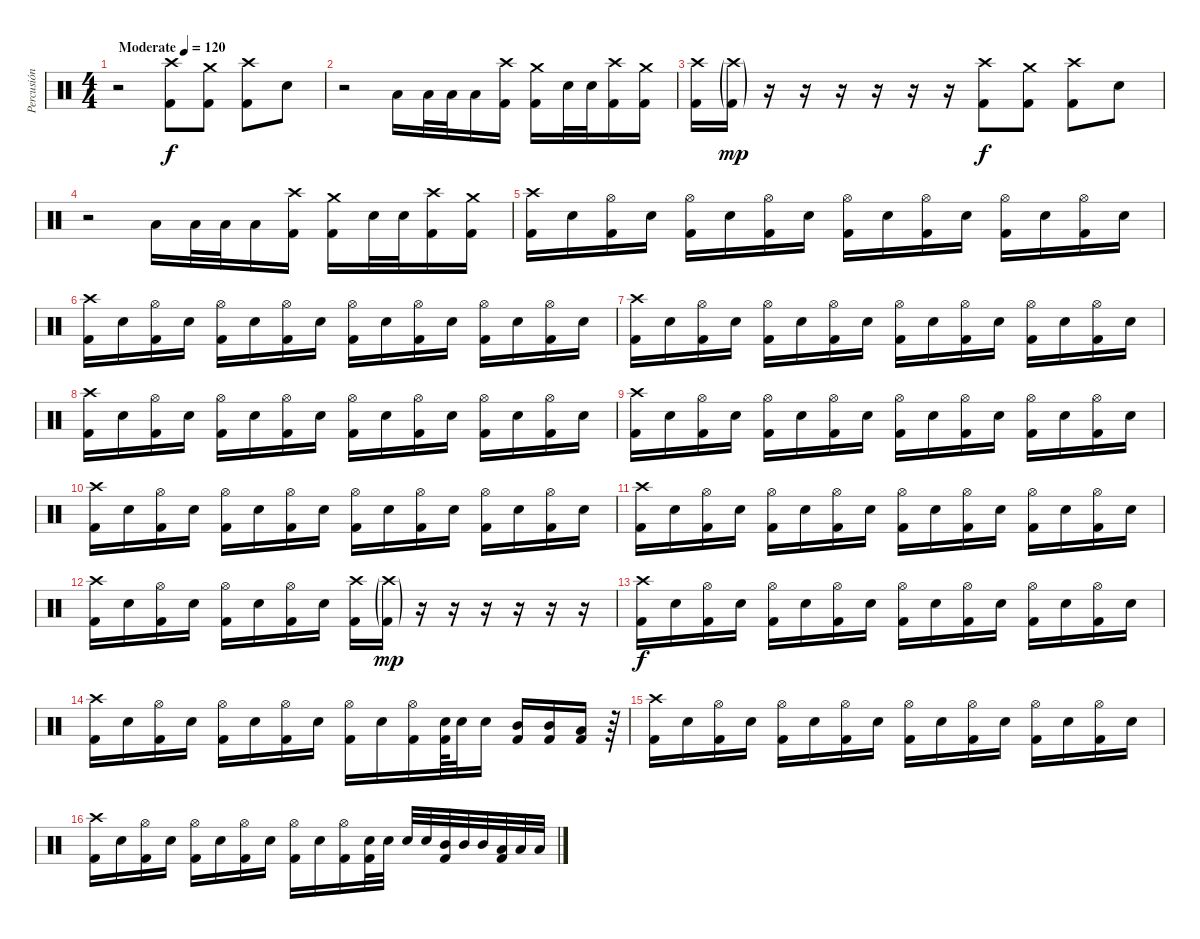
\track ("Percusión" "Percusión") {instrument percussion}
\staff {score}
\articulation defaults
\ts (4 4)
\tempo (120 "Moderate")
\tempo 110
\tempo (120 "Moderate")
\clef neutral
\ks c
r.2{dy f} ("Crash high (hit)" "Kick (hit) 2").8 ("Crash medium (hit)" "Kick (hit) 2").8 ("Crash high (hit)" "Kick (hit) 2").8 "Electric Snare (hit)".8 |
r.2 "Low Tom (hit)".16 "Low Tom (hit)".32 "Low Tom (hit)".32 "Low Tom (hit)".16 ("Crash high (hit)" "Kick (hit) 2").16 ("Crash medium (hit)" "Kick (hit) 2").16 "Electric Snare (hit)".32 "Electric Snare (hit)".32 ("Crash high (hit)" "Kick (hit) 2").16 ("Crash medium (hit)" "Kick (hit) 2").16 |
("Crash high (hit)" "Kick (hit) 2").16 ("Crash high (hit)"{g} "Kick (hit) 2"{g}).16{dy mp} r.16 r.16 r.16 r.16 r.16 r.16 ("Crash high (hit)" "Kick (hit) 2").8{dy f} ("Crash medium (hit)" "Kick (hit) 2").8 ("Crash high (hit)" "Kick (hit) 2").8 "Electric Snare (hit)".8 |
r.2 "Low Tom (hit)".16 "Low Tom (hit)".32 "Low Tom (hit)".32 "Low Tom (hit)".16 ("Crash high (hit)" "Kick (hit) 2").16 ("Crash medium (hit)" "Kick (hit) 2").16 "Electric Snare (hit)".32 "Electric Snare (hit)".32 ("Crash high (hit)" "Kick (hit) 2").16 ("Crash medium (hit)" "Kick (hit) 2").16 |
("Crash high (hit)" "Kick (hit) 2").16 "Electric Snare (hit)".16 ("Hi-Hat (open)" "Kick (hit) 2").16 "Electric Snare (hit)".16 ("Hi-Hat (open)" "Kick (hit) 2").16 "Electric Snare (hit)".16 ("Hi-Hat (open)" "Kick (hit) 2").16 "Electric Snare (hit)".16 ("Hi-Hat (open)" "Kick (hit) 2").16 "Electric Snare (hit)".16 ("Hi-Hat (open)" "Kick (hit) 2").16 "Electric Snare (hit)".16 ("Hi-Hat (open)" "Kick (hit) 2").16 "Electric Snare (hit)".16 ("Hi-Hat (open)" "Kick (hit) 2").16 "Electric Snare (hit)".16 |
("Crash high (hit)" "Kick (hit) 2").16 "Electric Snare (hit)".16 ("Hi-Hat (open)" "Kick (hit) 2").16 "Electric Snare (hit)".16 ("Hi-Hat (open)" "Kick (hit) 2").16 "Electric Snare (hit)".16 ("Hi-Hat (open)" "Kick (hit) 2").16 "Electric Snare (hit)".16 ("Hi-Hat (open)" "Kick (hit) 2").16 "Electric Snare (hit)".16 ("Hi-Hat (open)" "Kick (hit) 2").16 "Electric Snare (hit)".16 ("Hi-Hat (open)" "Kick (hit) 2").16 "Electric Snare (hit)".16 ("Hi-Hat (open)" "Kick (hit) 2").16 "Electric Snare (hit)".16 |
("Crash high (hit)" "Kick (hit) 2").16 "Electric Snare (hit)".16 ("Hi-Hat (open)" "Kick (hit) 2").16 "Electric Snare (hit)".16 ("Hi-Hat (open)" "Kick (hit) 2").16 "Electric Snare (hit)".16 ("Hi-Hat (open)" "Kick (hit) 2").16 "Electric Snare (hit)".16 ("Hi-Hat (open)" "Kick (hit) 2").16 "Electric Snare (hit)".16 ("Hi-Hat (open)" "Kick (hit) 2").16 "Electric Snare (hit)".16 ("Hi-Hat (open)" "Kick (hit) 2").16 "Electric Snare (hit)".16 ("Hi-Hat (open)" "Kick (hit) 2").16 "Electric Snare (hit)".16 |
("Crash high (hit)" "Kick (hit) 2").16 "Electric Snare (hit)".16 ("Hi-Hat (open)" "Kick (hit) 2").16 "Electric Snare (hit)".16 ("Hi-Hat (open)" "Kick (hit) 2").16 "Electric Snare (hit)".16 ("Hi-Hat (open)" "Kick (hit) 2").16 "Electric Snare (hit)".16 ("Hi-Hat (open)" "Kick (hit) 2").16 "Electric Snare (hit)".16 ("Hi-Hat (open)" "Kick (hit) 2").16 "Electric Snare (hit)".16 ("Hi-Hat (open)" "Kick (hit) 2").16 "Electric Snare (hit)".16 ("Hi-Hat (open)" "Kick (hit) 2").16 "Electric Snare (hit)".16 |
("Crash high (hit)" "Kick (hit) 2").16 "Electric Snare (hit)".16 ("Hi-Hat (open)" "Kick (hit) 2").16 "Electric Snare (hit)".16 ("Hi-Hat (open)" "Kick (hit) 2").16 "Electric Snare (hit)".16 ("Hi-Hat (open)" "Kick (hit) 2").16 "Electric Snare (hit)".16 ("Hi-Hat (open)" "Kick (hit) 2").16 "Electric Snare (hit)".16 ("Hi-Hat (open)" "Kick (hit) 2").16 "Electric Snare (hit)".16 ("Hi-Hat (open)" "Kick (hit) 2").16 "Electric Snare (hit)".16 ("Hi-Hat (open)" "Kick (hit) 2").16 "Electric Snare (hit)".16 |
("Crash high (hit)" "Kick (hit) 2").16 "Electric Snare (hit)".16 ("Hi-Hat (open)" "Kick (hit) 2").16 "Electric Snare (hit)".16 ("Hi-Hat (open)" "Kick (hit) 2").16 "Electric Snare (hit)".16 ("Hi-Hat (open)" "Kick (hit) 2").16 "Electric Snare (hit)".16 ("Hi-Hat (open)" "Kick (hit) 2").16 "Electric Snare (hit)".16 ("Hi-Hat (open)" "Kick (hit) 2").16 "Electric Snare (hit)".16 ("Hi-Hat (open)" "Kick (hit) 2").16 "Electric Snare (hit)".16 ("Hi-Hat (open)" "Kick (hit) 2").16 "Electric Snare (hit)".16 |
("Crash high (hit)" "Kick (hit) 2").16 "Electric Snare (hit)".16 ("Hi-Hat (open)" "Kick (hit) 2").16 "Electric Snare (hit)".16 ("Hi-Hat (open)" "Kick (hit) 2").16 "Electric Snare (hit)".16 ("Hi-Hat (open)" "Kick (hit) 2").16 "Electric Snare (hit)".16 ("Hi-Hat (open)" "Kick (hit) 2").16 "Electric Snare (hit)".16 ("Hi-Hat (open)" "Kick (hit) 2").16 "Electric Snare (hit)".16 ("Hi-Hat (open)" "Kick (hit) 2").16 "Electric Snare (hit)".16 ("Hi-Hat (open)" "Kick (hit) 2").16 "Electric Snare (hit)".16 |
("Crash high (hit)" "Kick (hit) 2").16 "Electric Snare (hit)".16 ("Hi-Hat (open)" "Kick (hit) 2").16 "Electric Snare (hit)".16 ("Hi-Hat (open)" "Kick (hit) 2").16 "Electric Snare (hit)".16 ("Hi-Hat (open)" "Kick (hit) 2").16 "Electric Snare (hit)".16 ("Crash high (hit)" "Kick (hit) 2").16 ("Crash high (hit)"{g} "Kick (hit) 2"{g}).16{dy mp} r.16 r.16 r.16 r.16 r.16 r.16 |
("Crash high (hit)" "Kick (hit) 2").16{dy f} "Electric Snare (hit)".16 ("Hi-Hat (open)" "Kick (hit) 2").16 "Electric Snare (hit)".16 ("Hi-Hat (open)" "Kick (hit) 2").16 "Electric Snare (hit)".16 ("Hi-Hat (open)" "Kick (hit) 2").16 "Electric Snare (hit)".16 ("Hi-Hat (open)" "Kick (hit) 2").16 "Electric Snare (hit)".16 ("Hi-Hat (open)" "Kick (hit) 2").16 "Electric Snare (hit)".16 ("Hi-Hat (open)" "Kick (hit) 2").16 "Electric Snare (hit)".16 ("Hi-Hat (open)" "Kick (hit) 2").16 "Electric Snare (hit)".16 |
("Crash high (hit)" "Kick (hit) 2").16 "Electric Snare (hit)".16 ("Hi-Hat (open)" "Kick (hit) 2").16 "Electric Snare (hit)".16 ("Hi-Hat (open)" "Kick (hit) 2").16 "Electric Snare (hit)".16 ("Hi-Hat (open)" "Kick (hit) 2").16 "Electric Snare (hit)".16 ("Hi-Hat (open)" "Kick (hit) 2").16 "Electric Snare (hit)".16 ("Hi-Hat (open)" "Kick (hit) 2").16 ("Electric Snare (hit)" "Kick (hit) 2").64 "Electric Snare (hit)".32 "Electric Snare (hit)".16 ("Mid Tom (hit)" "Kick (hit) 2").16 ("Mid Tom (hit)" "Kick (hit) 2").16 ("Low Tom (hit)" "Kick (hit) 2").16 r.64 |
("Crash high (hit)" "Kick (hit) 2").16 "Electric Snare (hit)".16 ("Hi-Hat (open)" "Kick (hit) 2").16 "Electric Snare (hit)".16 ("Hi-Hat (open)" "Kick (hit) 2").16 "Electric Snare (hit)".16 ("Hi-Hat (open)" "Kick (hit) 2").16 "Electric Snare (hit)".16 ("Hi-Hat (open)" "Kick (hit) 2").16 "Electric Snare (hit)".16 ("Hi-Hat (open)" "Kick (hit) 2").16 "Electric Snare (hit)".16 ("Hi-Hat (open)" "Kick (hit) 2").16 "Electric Snare (hit)".16 ("Hi-Hat (open)" "Kick (hit) 2").16 "Electric Snare (hit)".16 |
("Crash high (hit)" "Kick (hit) 2").16 "Electric Snare (hit)".16 ("Hi-Hat (open)" "Kick (hit) 2").16 "Electric Snare (hit)".16 ("Hi-Hat (open)" "Kick (hit) 2").16 "Electric Snare (hit)".16 ("Hi-Hat (open)" "Kick (hit) 2").16 "Electric Snare (hit)".16 ("Hi-Hat (open)" "Kick (hit) 2").16 "Electric Snare (hit)".16 ("Hi-Hat (open)" "Kick (hit) 2").16 ("Electric Snare (hit)" "Kick (hit) 2").32 "Electric Snare (hit)".32 "Electric Snare (hit)".32 "Electric Snare (hit)".32 ("Mid Tom (hit)" "Kick (hit) 2").32 "Mid Tom (hit)".32 "Mid Tom (hit)".32 ("Low Tom (hit)" "Kick (hit) 2").32 "Low Tom (hit)".32 "Low Tom (hit)".32
